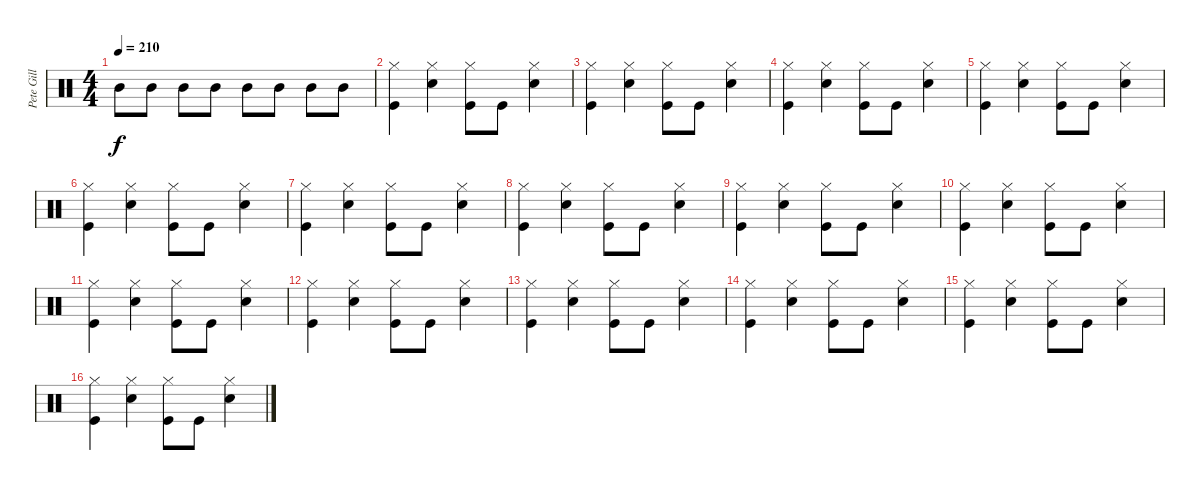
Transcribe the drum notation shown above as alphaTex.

\track ("Pete Gill" "Pete Gill") {instrument percussion}
\staff {score}
\articulation defaults
\ts (4 4)
\tempo 210
\clef neutral
\ks c "Mid Tom (hit)".8{dy f} "Mid Tom (hit)".8 "Mid Tom (hit)".8 "Mid Tom (hit)".8 "Mid Tom (hit)".8 "Mid Tom (hit)".8 "Mid Tom (hit)".8 "Mid Tom (hit)".8
|
("Hi-Hat (closed)" "Kick (hit)").4 ("Hi-Hat (closed)" "Snare (hit) 2").4 ("Hi-Hat (closed)" "Kick (hit)").8 "Kick (hit)".8 ("Hi-Hat (closed)" "Snare (hit) 2").4 |
("Hi-Hat (closed)" "Kick (hit)").4 ("Hi-Hat (closed)" "Snare (hit) 2").4 ("Hi-Hat (closed)" "Kick (hit)").8 "Kick (hit)".8 ("Hi-Hat (closed)" "Snare (hit) 2").4 |
("Hi-Hat (closed)" "Kick (hit)").4 ("Hi-Hat (closed)" "Snare (hit) 2").4 ("Hi-Hat (closed)" "Kick (hit)").8 "Kick (hit)".8 ("Hi-Hat (closed)" "Snare (hit) 2").4 |
("Hi-Hat (closed)" "Kick (hit)").4 ("Hi-Hat (closed)" "Snare (hit) 2").4 ("Hi-Hat (closed)" "Kick (hit)").8 "Kick (hit)".8 ("Hi-Hat (closed)" "Snare (hit) 2").4 |
("Hi-Hat (closed)" "Kick (hit)").4 ("Hi-Hat (closed)" "Snare (hit) 2").4 ("Hi-Hat (closed)" "Kick (hit)").8 "Kick (hit)".8 ("Hi-Hat (closed)" "Snare (hit) 2").4 |
("Hi-Hat (closed)" "Kick (hit)").4 ("Hi-Hat (closed)" "Snare (hit) 2").4 ("Hi-Hat (closed)" "Kick (hit)").8 "Kick (hit)".8 ("Hi-Hat (closed)" "Snare (hit) 2").4 |
("Hi-Hat (closed)" "Kick (hit)").4 ("Hi-Hat (closed)" "Snare (hit) 2").4 ("Hi-Hat (closed)" "Kick (hit)").8 "Kick (hit)".8 ("Hi-Hat (closed)" "Snare (hit) 2").4 |
("Hi-Hat (closed)" "Kick (hit)").4 ("Hi-Hat (closed)" "Snare (hit) 2").4 ("Hi-Hat (closed)" "Kick (hit)").8 "Kick (hit)".8 ("Hi-Hat (closed)" "Snare (hit) 2").4 |
("Hi-Hat (closed)" "Kick (hit)").4 ("Hi-Hat (closed)" "Snare (hit) 2").4 ("Hi-Hat (closed)" "Kick (hit)").8 "Kick (hit)".8 ("Hi-Hat (closed)" "Snare (hit) 2").4 |
("Hi-Hat (closed)" "Kick (hit)").4 ("Hi-Hat (closed)" "Snare (hit) 2").4 ("Hi-Hat (closed)" "Kick (hit)").8 "Kick (hit)".8 ("Hi-Hat (closed)" "Snare (hit) 2").4 |
("Hi-Hat (closed)" "Kick (hit)").4 ("Hi-Hat (closed)" "Snare (hit) 2").4 ("Hi-Hat (closed)" "Kick (hit)").8 "Kick (hit)".8 ("Hi-Hat (closed)" "Snare (hit) 2").4 |
("Hi-Hat (closed)" "Kick (hit)").4 ("Hi-Hat (closed)" "Snare (hit) 2").4 ("Hi-Hat (closed)" "Kick (hit)").8 "Kick (hit)".8 ("Hi-Hat (closed)" "Snare (hit) 2").4 |
("Hi-Hat (closed)" "Kick (hit)").4 ("Hi-Hat (closed)" "Snare (hit) 2").4 ("Hi-Hat (closed)" "Kick (hit)").8 "Kick (hit)".8 ("Hi-Hat (closed)" "Snare (hit) 2").4 |
("Hi-Hat (closed)" "Kick (hit)").4 ("Hi-Hat (closed)" "Snare (hit) 2").4 ("Hi-Hat (closed)" "Kick (hit)").8 "Kick (hit)".8 ("Hi-Hat (closed)" "Snare (hit) 2").4 |
("Hi-Hat (closed)" "Kick (hit)").4 ("Hi-Hat (closed)" "Snare (hit) 2").4 ("Hi-Hat (closed)" "Kick (hit)").8 "Kick (hit)".8 ("Hi-Hat (closed)" "Snare (hit) 2").4
